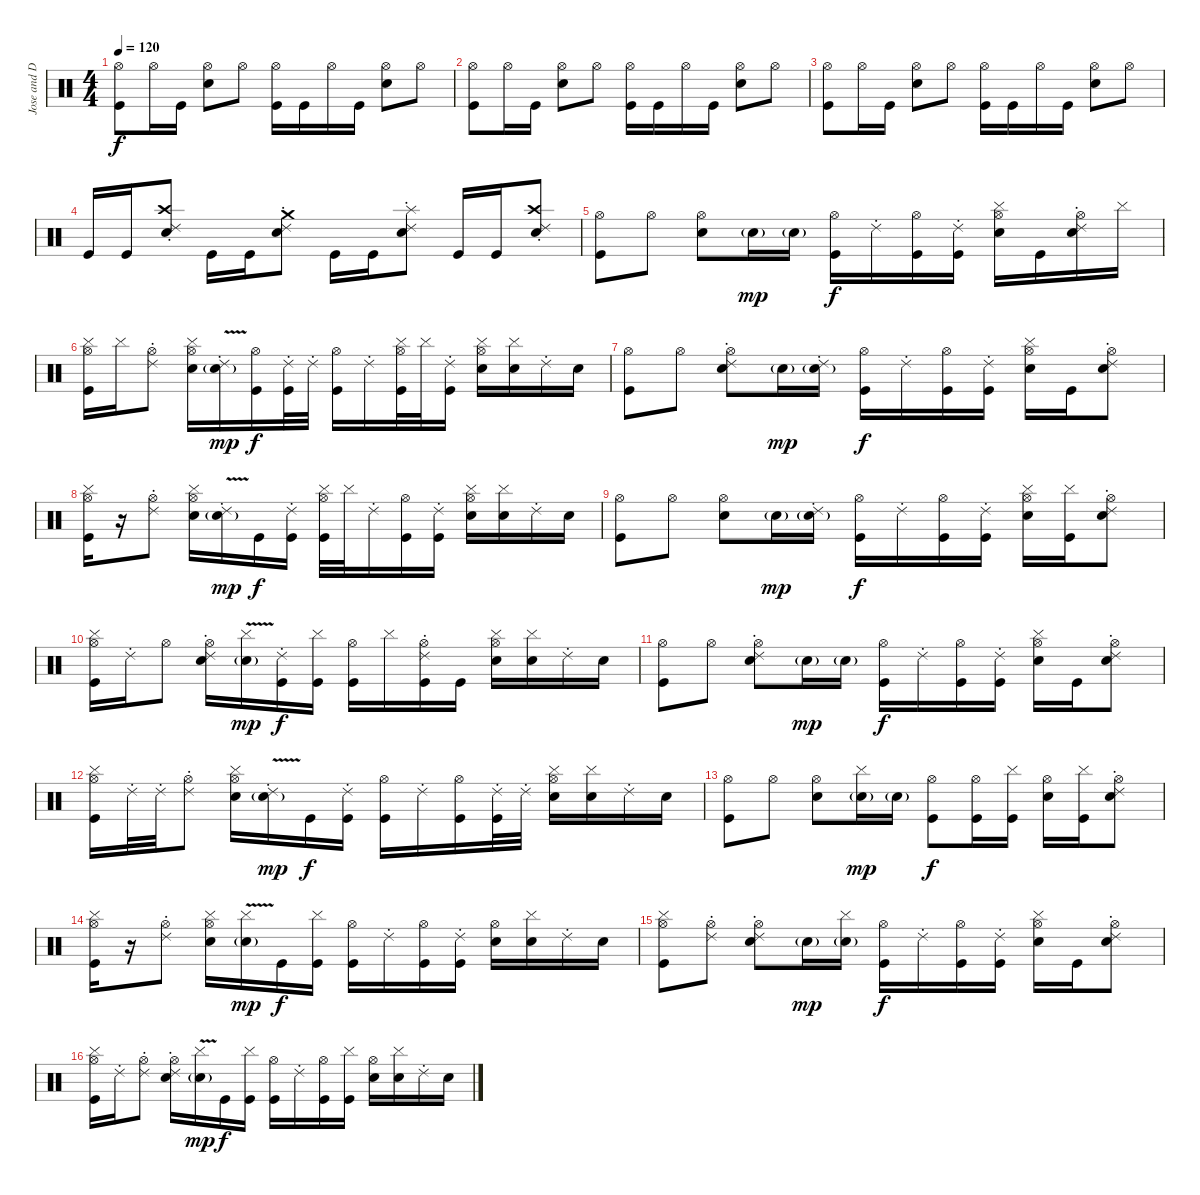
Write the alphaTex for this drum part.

\track ("Jose and Dj" "Jose and D") {instrument percussion}
\staff {score}
\articulation defaults
\ts (4 4)
\tempo 120
\clef neutral
\ks c
("Hi-Hat (open)" "Kick (hit)").8{dy f} "Hi-Hat (open)".16 "Kick (hit)".16 ("Hi-Hat (open)" "Snare (hit) 2").8 "Hi-Hat (open)".8 ("Hi-Hat (open)" "Kick (hit)").16 "Kick (hit)".16 "Hi-Hat (open)".16 "Kick (hit)".16 ("Hi-Hat (open)" "Snare (hit) 2").8 "Hi-Hat (open)".8 |
("Hi-Hat (open)" "Kick (hit)").8 "Hi-Hat (open)".16 "Kick (hit)".16 ("Hi-Hat (open)" "Snare (hit) 2").8 "Hi-Hat (open)".8 ("Hi-Hat (open)" "Kick (hit)").16 "Kick (hit)".16 "Hi-Hat (open)".16 "Kick (hit)".16 ("Hi-Hat (open)" "Snare (hit) 2").8 "Hi-Hat (open)".8 |
("Hi-Hat (open)" "Kick (hit)").8 "Hi-Hat (open)".16 "Kick (hit)".16 ("Hi-Hat (open)" "Snare (hit) 2").8 "Hi-Hat (open)".8 ("Hi-Hat (open)" "Kick (hit)").16 "Kick (hit)".16 "Hi-Hat (open)".16 "Kick (hit)".16 ("Hi-Hat (open)" "Snare (hit) 2").8 "Hi-Hat (open)".8 |
"Kick (hit)".16 "Kick (hit)".16 ("Crash high (hit)" "Snare (hit) 2" "Ride (choke) 2").8 "Kick (hit)".16 "Kick (hit)".16 ("Crash medium (hit)" "Snare (hit) 2" "Ride (choke) 2").8 "Kick (hit)".16 "Kick (hit)".16 ("Splash (hit)" "Snare (hit) 2" "Ride (choke) 2").8 "Kick (hit)".16 "Kick (hit)".16 ("Crash high (hit)" "Snare (hit) 2" "Ride (choke) 2").8 |
("Hi-Hat (open)" "Kick (hit)").8 "Hi-Hat (open)".8 ("Hi-Hat (open)" "Snare (hit) 2").8 "Snare (hit) 2"{g}.16{dy mp} "Snare (hit) 2"{g}.16 ("Hi-Hat (open)" "Kick (hit)").16{dy f} "Ride (choke) 2".16 ("Hi-Hat (open)" "Kick (hit)").16 ("Ride (choke) 2" "Kick (hit)").16 ("Hi-Hat (open)" "Snare (hit) 2" "Cymbal (hit)").16 "Kick (hit)".16 ("Hi-Hat (open)" "Snare (hit) 2" "Ride (choke) 2").16 "Cymbal (hit)".16 |
("Hi-Hat (open)" "Cymbal (hit)" "Kick (hit)").16 "Cymbal (hit)".16 ("Hi-Hat (open)" "Ride (choke) 2").8 ("Hi-Hat (open)" "Snare (hit) 2" "Cymbal (hit)").16 ("Snare (hit) 2"{v g} "Ride (choke) 2"{v}).16{dy mp} ("Hi-Hat (open)" "Kick (hit)").16{dy f} ("Ride (choke) 2" "Kick (hit)").32 "Ride (choke) 2".32 ("Hi-Hat (open)" "Kick (hit)").16 "Ride (choke) 2".16 ("Hi-Hat (open)" "Cymbal (hit)" "Kick (hit)").32 "Cymbal (hit)".32 ("Ride (choke) 2" "Kick (hit)").16 ("Hi-Hat (open)" "Snare (hit) 2" "Cymbal (hit)").16 ("Snare (hit) 2" "Cymbal (hit)").16 "Ride (choke) 2".16 "Snare (hit) 2".16 |
("Hi-Hat (open)" "Kick (hit)").8 "Hi-Hat (open)".8 ("Hi-Hat (open)" "Snare (hit) 2" "Ride (choke) 2").8 "Snare (hit) 2"{g}.16{dy mp} ("Snare (hit) 2"{g} "Ride (choke) 2").16 ("Hi-Hat (open)" "Kick (hit)").16{dy f} "Ride (choke) 2".16 ("Hi-Hat (open)" "Kick (hit)").16 ("Ride (choke) 2" "Kick (hit)").16 ("Hi-Hat (open)" "Snare (hit) 2" "Cymbal (hit)").16 "Kick (hit)".16 ("Hi-Hat (open)" "Snare (hit) 2" "Ride (choke) 2").8 |
("Hi-Hat (open)" "Cymbal (hit)" "Kick (hit)").16 r.16 ("Hi-Hat (open)" "Ride (choke) 2").8 ("Hi-Hat (open)" "Snare (hit) 2" "Cymbal (hit)").16 ("Snare (hit) 2"{v g} "Ride (choke) 2"{v}).16{dy mp} "Kick (hit)".16{dy f} ("Ride (choke) 2" "Kick (hit)").16 ("Hi-Hat (open)" "Cymbal (hit)" "Kick (hit)").32 "Cymbal (hit)".32 "Ride (choke) 2".16 ("Hi-Hat (open)" "Kick (hit)").16 ("Ride (choke) 2" "Kick (hit)").16 ("Hi-Hat (open)" "Snare (hit) 2" "Cymbal (hit)").16 ("Snare (hit) 2" "Cymbal (hit)").16 "Ride (choke) 2".16 "Snare (hit) 2".16 |
("Hi-Hat (open)" "Kick (hit)").8 "Hi-Hat (open)".8 ("Hi-Hat (open)" "Snare (hit) 2").8 "Snare (hit) 2"{g}.16{dy mp} ("Snare (hit) 2"{g} "Ride (choke) 2").16 ("Hi-Hat (open)" "Kick (hit)").16{dy f} "Ride (choke) 2".16 ("Hi-Hat (open)" "Kick (hit)").16 ("Ride (choke) 2" "Kick (hit)").16 ("Hi-Hat (open)" "Snare (hit) 2" "Cymbal (hit)").16 ("Cymbal (hit)" "Kick (hit)").16 ("Hi-Hat (open)" "Snare (hit) 2" "Ride (choke) 2").8 |
("Hi-Hat (open)" "Cymbal (hit)" "Kick (hit)").16 "Ride (choke) 2".16 "Hi-Hat (open)".8 ("Hi-Hat (open)" "Snare (hit) 2" "Ride (choke) 2").16 ("Snare (hit) 2"{v g} "Cymbal (hit)"{v}).16{dy mp} ("Ride (choke) 2" "Kick (hit)").16{dy f} ("Cymbal (hit)" "Kick (hit)").16 ("Hi-Hat (open)" "Kick (hit)").16 "Cymbal (hit)".16 ("Hi-Hat (open)" "Ride (choke) 2" "Kick (hit)").16 "Kick (hit)".16 ("Hi-Hat (open)" "Snare (hit) 2" "Cymbal (hit)").16 ("Snare (hit) 2" "Cymbal (hit)").16 "Ride (choke) 2".16 "Snare (hit) 2".16 |
("Hi-Hat (open)" "Kick (hit)").8 "Hi-Hat (open)".8 ("Hi-Hat (open)" "Snare (hit) 2" "Ride (choke) 2").8 "Snare (hit) 2"{g}.16{dy mp} "Snare (hit) 2"{g}.16 ("Hi-Hat (open)" "Kick (hit)").16{dy f} "Ride (choke) 2".16 ("Hi-Hat (open)" "Kick (hit)").16 ("Ride (choke) 2" "Kick (hit)").16 ("Hi-Hat (open)" "Snare (hit) 2" "Cymbal (hit)").16 "Kick (hit)".16 ("Hi-Hat (open)" "Snare (hit) 2" "Ride (choke) 2").8 |
("Hi-Hat (open)" "Cymbal (hit)" "Kick (hit)").16 "Ride (choke) 2".32 "Ride (choke) 2".32 ("Hi-Hat (open)" "Ride (choke) 2").8 ("Hi-Hat (open)" "Snare (hit) 2" "Cymbal (hit)").16 ("Snare (hit) 2"{v g} "Ride (choke) 2"{v}).16{dy mp} "Kick (hit)".16{dy f} ("Ride (choke) 2" "Kick (hit)").16 ("Hi-Hat (open)" "Kick (hit)").16 "Ride (choke) 2".16 ("Hi-Hat (open)" "Kick (hit)").16 ("Ride (choke) 2" "Kick (hit)").32 "Ride (choke) 2".32 ("Hi-Hat (open)" "Snare (hit) 2" "Cymbal (hit)").16 ("Snare (hit) 2" "Cymbal (hit)").16 "Ride (choke) 2".16 "Snare (hit) 2".16 |
("Hi-Hat (open)" "Kick (hit)").8 "Hi-Hat (open)".8 ("Hi-Hat (open)" "Snare (hit) 2").8 ("Snare (hit) 2"{g} "Cymbal (hit)").16{dy mp} "Snare (hit) 2"{g}.16 ("Hi-Hat (open)" "Kick (hit)").8{dy f} ("Hi-Hat (open)" "Kick (hit)").16 ("Cymbal (hit)" "Kick (hit)").16 ("Hi-Hat (open)" "Snare (hit) 2").16 ("Cymbal (hit)" "Kick (hit)").16 ("Hi-Hat (open)" "Snare (hit) 2" "Ride (choke) 2").8 |
("Hi-Hat (open)" "Cymbal (hit)" "Kick (hit)").16 r.16 ("Hi-Hat (open)" "Ride (choke) 2").8 ("Hi-Hat (open)" "Snare (hit) 2" "Cymbal (hit)").16 ("Snare (hit) 2"{v g} "Cymbal (hit)"{v}).16{dy mp} "Kick (hit)".16{dy f} ("Cymbal (hit)" "Kick (hit)").16 ("Hi-Hat (open)" "Kick (hit)").16 "Ride (choke) 2".16 ("Hi-Hat (open)" "Kick (hit)").16 ("Ride (choke) 2" "Kick (hit)").16 ("Hi-Hat (open)" "Snare (hit) 2").16 ("Snare (hit) 2" "Cymbal (hit)").16 "Ride (choke) 2".16 "Snare (hit) 2".16 |
("Hi-Hat (open)" "Cymbal (hit)" "Kick (hit)").8 ("Hi-Hat (open)" "Ride (choke) 2").8 ("Hi-Hat (open)" "Snare (hit) 2" "Ride (choke) 2").8 "Snare (hit) 2"{g}.16{dy mp} ("Snare (hit) 2"{g} "Cymbal (hit)").16 ("Hi-Hat (open)" "Kick (hit)").16{dy f} "Ride (choke) 2".16 ("Hi-Hat (open)" "Kick (hit)").16 ("Ride (choke) 2" "Kick (hit)").16 ("Hi-Hat (open)" "Snare (hit) 2" "Cymbal (hit)").16 "Kick (hit)".16 ("Hi-Hat (open)" "Snare (hit) 2" "Ride (choke) 2").8 |
("Hi-Hat (open)" "Cymbal (hit)" "Kick (hit)").16 "Ride (choke) 2".16 ("Hi-Hat (open)" "Ride (choke) 2").8 ("Hi-Hat (open)" "Snare (hit) 2" "Ride (choke) 2").16 ("Snare (hit) 2"{v g} "Cymbal (hit)"{v}).16{dy mp} "Kick (hit)".16{dy f} ("Cymbal (hit)" "Kick (hit)").16 ("Hi-Hat (open)" "Kick (hit)").16 "Ride (choke) 2".16 ("Hi-Hat (open)" "Kick (hit)").16 ("Cymbal (hit)" "Kick (hit)").16 ("Hi-Hat (open)" "Snare (hit) 2").16 ("Snare (hit) 2" "Cymbal (hit)").16 "Ride (choke) 2".16 "Snare (hit) 2".16
